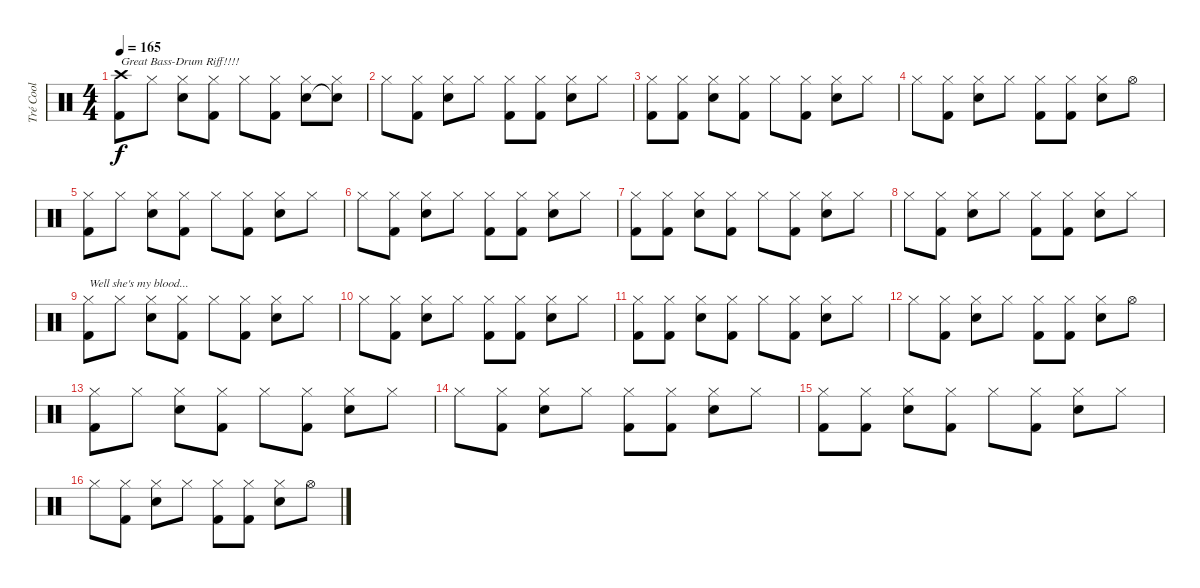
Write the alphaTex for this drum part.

\track ("Tré Cool" "Tré Cool") {instrument percussion}
\staff {score}
\articulation defaults
\ts (4 4)
\tempo 165
\clef neutral
\ks c
("Crash high (hit)" "Kick (hit) 2").8{txt "Great Bass-Drum Riff!!!!" dy f volume 15} "Hi-Hat (closed)".8 ("Hi-Hat (closed)" "Electric Snare (hit)").8 ("Hi-Hat (closed)" "Kick (hit) 2").8 "Hi-Hat (closed)".8 ("Hi-Hat (closed)" "Kick (hit) 2").8 ("Hi-Hat (closed)" "Electric Snare (hit)").8 ("Hi-Hat (closed)" "Snare (hit)"{t}).8 |
"Hi-Hat (closed)".8 ("Hi-Hat (closed)" "Kick (hit) 2").8 ("Hi-Hat (closed)" "Electric Snare (hit)").8 "Hi-Hat (closed)".8 ("Hi-Hat (closed)" "Kick (hit) 2").8 ("Hi-Hat (closed)" "Kick (hit) 2").8 ("Hi-Hat (closed)" "Electric Snare (hit)").8 "Hi-Hat (closed)".8 |
("Hi-Hat (closed)" "Kick (hit) 2").8 ("Hi-Hat (closed)" "Kick (hit) 2").8 ("Hi-Hat (closed)" "Electric Snare (hit)").8 ("Hi-Hat (closed)" "Kick (hit) 2").8 "Hi-Hat (closed)".8 ("Hi-Hat (closed)" "Kick (hit) 2").8 ("Hi-Hat (closed)" "Electric Snare (hit)").8 "Hi-Hat (closed)".8 |
"Hi-Hat (closed)".8 ("Hi-Hat (closed)" "Kick (hit) 2").8 ("Hi-Hat (closed)" "Electric Snare (hit)").8 "Hi-Hat (closed)".8 ("Hi-Hat (closed)" "Kick (hit) 2").8 ("Hi-Hat (closed)" "Kick (hit) 2").8 ("Hi-Hat (closed)" "Electric Snare (hit)").8 "Hi-Hat (open)".8 |
("Hi-Hat (closed)" "Kick (hit) 2").8 "Hi-Hat (closed)".8 ("Hi-Hat (closed)" "Electric Snare (hit)").8 ("Hi-Hat (closed)" "Kick (hit) 2").8 "Hi-Hat (closed)".8 ("Hi-Hat (closed)" "Kick (hit) 2").8 ("Hi-Hat (closed)" "Electric Snare (hit)").8 "Hi-Hat (closed)".8 |
"Hi-Hat (closed)".8 ("Hi-Hat (closed)" "Kick (hit) 2").8 ("Hi-Hat (closed)" "Electric Snare (hit)").8 "Hi-Hat (closed)".8 ("Hi-Hat (closed)" "Kick (hit) 2").8 ("Hi-Hat (closed)" "Kick (hit) 2").8 ("Hi-Hat (closed)" "Electric Snare (hit)").8 "Hi-Hat (closed)".8 |
("Hi-Hat (closed)" "Kick (hit) 2").8 ("Hi-Hat (closed)" "Kick (hit) 2").8 ("Hi-Hat (closed)" "Electric Snare (hit)").8 ("Hi-Hat (closed)" "Kick (hit) 2").8 "Hi-Hat (closed)".8 ("Hi-Hat (closed)" "Kick (hit) 2").8 ("Hi-Hat (closed)" "Electric Snare (hit)").8 "Hi-Hat (closed)".8 |
"Hi-Hat (closed)".8 ("Hi-Hat (closed)" "Kick (hit) 2").8 ("Hi-Hat (closed)" "Electric Snare (hit)").8 "Hi-Hat (closed)".8 ("Hi-Hat (closed)" "Kick (hit) 2").8 ("Hi-Hat (closed)" "Kick (hit) 2").8 ("Hi-Hat (closed)" "Electric Snare (hit)").8 "Hi-Hat (closed)".8 |
("Hi-Hat (closed)" "Kick (hit) 2").8{txt "Well she's my blood..." volume 15} "Hi-Hat (closed)".8 ("Hi-Hat (closed)" "Electric Snare (hit)").8 ("Hi-Hat (closed)" "Kick (hit) 2").8 "Hi-Hat (closed)".8 ("Hi-Hat (closed)" "Kick (hit) 2").8 ("Hi-Hat (closed)" "Electric Snare (hit)").8 "Hi-Hat (closed)".8 |
"Hi-Hat (closed)".8 ("Hi-Hat (closed)" "Kick (hit) 2").8 ("Hi-Hat (closed)" "Electric Snare (hit)").8 "Hi-Hat (closed)".8 ("Hi-Hat (closed)" "Kick (hit) 2").8 ("Hi-Hat (closed)" "Kick (hit) 2").8 ("Hi-Hat (closed)" "Electric Snare (hit)").8 "Hi-Hat (closed)".8 |
("Hi-Hat (closed)" "Kick (hit) 2").8 ("Hi-Hat (closed)" "Kick (hit) 2").8 ("Hi-Hat (closed)" "Electric Snare (hit)").8 ("Hi-Hat (closed)" "Kick (hit) 2").8 "Hi-Hat (closed)".8 ("Hi-Hat (closed)" "Kick (hit) 2").8 ("Hi-Hat (closed)" "Electric Snare (hit)").8 "Hi-Hat (closed)".8 |
"Hi-Hat (closed)".8 ("Hi-Hat (closed)" "Kick (hit) 2").8 ("Hi-Hat (closed)" "Electric Snare (hit)").8 "Hi-Hat (closed)".8 ("Hi-Hat (closed)" "Kick (hit) 2").8 ("Hi-Hat (closed)" "Kick (hit) 2").8 ("Hi-Hat (closed)" "Electric Snare (hit)").8 "Hi-Hat (open)".8 |
("Hi-Hat (closed)" "Kick (hit) 2").8 "Hi-Hat (closed)".8 ("Hi-Hat (closed)" "Electric Snare (hit)").8 ("Hi-Hat (closed)" "Kick (hit) 2").8 "Hi-Hat (closed)".8 ("Hi-Hat (closed)" "Kick (hit) 2").8 ("Hi-Hat (closed)" "Electric Snare (hit)").8 "Hi-Hat (closed)".8 |
"Hi-Hat (closed)".8 ("Hi-Hat (closed)" "Kick (hit) 2").8 ("Hi-Hat (closed)" "Electric Snare (hit)").8 "Hi-Hat (closed)".8 ("Hi-Hat (closed)" "Kick (hit) 2").8 ("Hi-Hat (closed)" "Kick (hit) 2").8 ("Hi-Hat (closed)" "Electric Snare (hit)").8 "Hi-Hat (closed)".8 |
("Hi-Hat (closed)" "Kick (hit) 2").8 ("Hi-Hat (closed)" "Kick (hit) 2").8 ("Hi-Hat (closed)" "Electric Snare (hit)").8 ("Hi-Hat (closed)" "Kick (hit) 2").8 "Hi-Hat (closed)".8 ("Hi-Hat (closed)" "Kick (hit) 2").8 ("Hi-Hat (closed)" "Electric Snare (hit)").8 "Hi-Hat (closed)".8 |
"Hi-Hat (closed)".8 ("Hi-Hat (closed)" "Kick (hit) 2").8 ("Hi-Hat (closed)" "Electric Snare (hit)").8 "Hi-Hat (closed)".8 ("Hi-Hat (closed)" "Kick (hit) 2").8 ("Hi-Hat (closed)" "Kick (hit) 2").8 ("Hi-Hat (closed)" "Electric Snare (hit)").8 "Hi-Hat (open)".8
